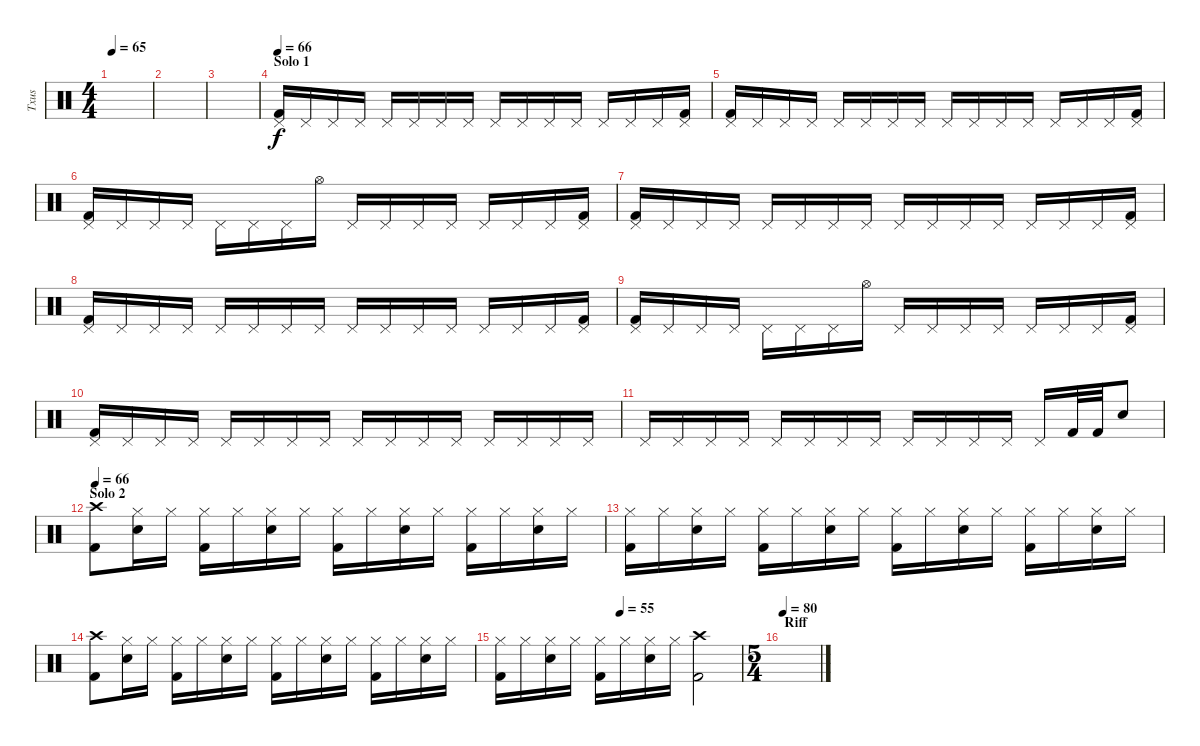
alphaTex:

\track ("Txus" "Txus") {instrument percussion}
\staff {score}
\articulation defaults
\ts (4 4)
\tempo 65
\clef neutral
\ks c
|
|
|
\section ("" "Solo 1")
\tempo 66
("Kick (hit) 2" "Pedal Hi-Hat (hit)").16{volume 11} "Pedal Hi-Hat (hit)".16 "Pedal Hi-Hat (hit)".16 "Pedal Hi-Hat (hit)".16 "Pedal Hi-Hat (hit)".16 "Pedal Hi-Hat (hit)".16 "Pedal Hi-Hat (hit)".16 "Pedal Hi-Hat (hit)".16 "Pedal Hi-Hat (hit)".16 "Pedal Hi-Hat (hit)".16 "Pedal Hi-Hat (hit)".16 "Pedal Hi-Hat (hit)".16 "Pedal Hi-Hat (hit)".16 "Pedal Hi-Hat (hit)".16 "Pedal Hi-Hat (hit)".16 ("Kick (hit) 2" "Pedal Hi-Hat (hit)").16 |
("Kick (hit) 2" "Pedal Hi-Hat (hit)").16 "Pedal Hi-Hat (hit)".16 "Pedal Hi-Hat (hit)".16 "Pedal Hi-Hat (hit)".16 "Pedal Hi-Hat (hit)".16 "Pedal Hi-Hat (hit)".16 "Pedal Hi-Hat (hit)".16 "Pedal Hi-Hat (hit)".16 "Pedal Hi-Hat (hit)".16 "Pedal Hi-Hat (hit)".16 "Pedal Hi-Hat (hit)".16 "Pedal Hi-Hat (hit)".16 "Pedal Hi-Hat (hit)".16 "Pedal Hi-Hat (hit)".16 "Pedal Hi-Hat (hit)".16 ("Kick (hit) 2" "Pedal Hi-Hat (hit)").16 |
("Kick (hit) 2" "Pedal Hi-Hat (hit)").16 "Pedal Hi-Hat (hit)".16 "Pedal Hi-Hat (hit)".16 "Pedal Hi-Hat (hit)".16 "Pedal Hi-Hat (hit)".16 "Pedal Hi-Hat (hit)".16 "Pedal Hi-Hat (hit)".16 "Hi-Hat (open)".16 "Pedal Hi-Hat (hit)".16 "Pedal Hi-Hat (hit)".16 "Pedal Hi-Hat (hit)".16 "Pedal Hi-Hat (hit)".16 "Pedal Hi-Hat (hit)".16 "Pedal Hi-Hat (hit)".16 "Pedal Hi-Hat (hit)".16 ("Kick (hit) 2" "Pedal Hi-Hat (hit)").16 |
("Kick (hit) 2" "Pedal Hi-Hat (hit)").16 "Pedal Hi-Hat (hit)".16 "Pedal Hi-Hat (hit)".16 "Pedal Hi-Hat (hit)".16 "Pedal Hi-Hat (hit)".16 "Pedal Hi-Hat (hit)".16 "Pedal Hi-Hat (hit)".16 "Pedal Hi-Hat (hit)".16 "Pedal Hi-Hat (hit)".16 "Pedal Hi-Hat (hit)".16 "Pedal Hi-Hat (hit)".16 "Pedal Hi-Hat (hit)".16 "Pedal Hi-Hat (hit)".16 "Pedal Hi-Hat (hit)".16 "Pedal Hi-Hat (hit)".16 ("Kick (hit) 2" "Pedal Hi-Hat (hit)").16 |
("Kick (hit) 2" "Pedal Hi-Hat (hit)").16 "Pedal Hi-Hat (hit)".16 "Pedal Hi-Hat (hit)".16 "Pedal Hi-Hat (hit)".16 "Pedal Hi-Hat (hit)".16 "Pedal Hi-Hat (hit)".16 "Pedal Hi-Hat (hit)".16 "Pedal Hi-Hat (hit)".16 "Pedal Hi-Hat (hit)".16 "Pedal Hi-Hat (hit)".16 "Pedal Hi-Hat (hit)".16 "Pedal Hi-Hat (hit)".16 "Pedal Hi-Hat (hit)".16 "Pedal Hi-Hat (hit)".16 "Pedal Hi-Hat (hit)".16 ("Kick (hit) 2" "Pedal Hi-Hat (hit)").16 |
("Kick (hit) 2" "Pedal Hi-Hat (hit)").16 "Pedal Hi-Hat (hit)".16 "Pedal Hi-Hat (hit)".16 "Pedal Hi-Hat (hit)".16 "Pedal Hi-Hat (hit)".16 "Pedal Hi-Hat (hit)".16 "Pedal Hi-Hat (hit)".16 "Hi-Hat (open)".16 "Pedal Hi-Hat (hit)".16 "Pedal Hi-Hat (hit)".16 "Pedal Hi-Hat (hit)".16 "Pedal Hi-Hat (hit)".16 "Pedal Hi-Hat (hit)".16 "Pedal Hi-Hat (hit)".16 "Pedal Hi-Hat (hit)".16 ("Kick (hit) 2" "Pedal Hi-Hat (hit)").16 |
("Kick (hit) 2" "Pedal Hi-Hat (hit)").16 "Pedal Hi-Hat (hit)".16 "Pedal Hi-Hat (hit)".16 "Pedal Hi-Hat (hit)".16 "Pedal Hi-Hat (hit)".16 "Pedal Hi-Hat (hit)".16 "Pedal Hi-Hat (hit)".16 "Pedal Hi-Hat (hit)".16 "Pedal Hi-Hat (hit)".16 "Pedal Hi-Hat (hit)".16 "Pedal Hi-Hat (hit)".16 "Pedal Hi-Hat (hit)".16 "Pedal Hi-Hat (hit)".16 "Pedal Hi-Hat (hit)".16 "Pedal Hi-Hat (hit)".16 "Pedal Hi-Hat (hit)".16 |
"Pedal Hi-Hat (hit)".16 "Pedal Hi-Hat (hit)".16 "Pedal Hi-Hat (hit)".16 "Pedal Hi-Hat (hit)".16 "Pedal Hi-Hat (hit)".16 "Pedal Hi-Hat (hit)".16 "Pedal Hi-Hat (hit)".16 "Pedal Hi-Hat (hit)".16 "Pedal Hi-Hat (hit)".16 "Pedal Hi-Hat (hit)".16 "Pedal Hi-Hat (hit)".16 "Pedal Hi-Hat (hit)".16 "Pedal Hi-Hat (hit)".16 "Kick (hit) 2".32{volume 14} "Kick (hit) 2".32 "Electric Snare (hit)".8 |
\section ("" "Solo 2")
\tempo 66
("Kick (hit) 2" "Crash high (hit)").8{volume 15} ("Electric Snare (hit)" "Hi-Hat (closed)").16 "Hi-Hat (closed)".16 ("Kick (hit) 2" "Hi-Hat (closed)").16 "Hi-Hat (closed)".16 ("Electric Snare (hit)" "Hi-Hat (closed)").16 "Hi-Hat (closed)".16 ("Kick (hit) 2" "Hi-Hat (closed)").16 "Hi-Hat (closed)".16 ("Electric Snare (hit)" "Hi-Hat (closed)").16 "Hi-Hat (closed)".16 ("Kick (hit) 2" "Hi-Hat (closed)").16 "Hi-Hat (closed)".16 ("Electric Snare (hit)" "Hi-Hat (closed)").16 "Hi-Hat (closed)".16 |
("Kick (hit) 2" "Hi-Hat (closed)").16 "Hi-Hat (closed)".16 ("Electric Snare (hit)" "Hi-Hat (closed)").16 "Hi-Hat (closed)".16 ("Kick (hit) 2" "Hi-Hat (closed)").16 "Hi-Hat (closed)".16 ("Electric Snare (hit)" "Hi-Hat (closed)").16 "Hi-Hat (closed)".16 ("Kick (hit) 2" "Hi-Hat (closed)").16 "Hi-Hat (closed)".16 ("Electric Snare (hit)" "Hi-Hat (closed)").16 "Hi-Hat (closed)".16 ("Kick (hit) 2" "Hi-Hat (closed)").16 "Hi-Hat (closed)".16 ("Electric Snare (hit)" "Hi-Hat (closed)").16 "Hi-Hat (closed)".16 |
("Kick (hit) 2" "Crash high (hit)").8 ("Electric Snare (hit)" "Hi-Hat (closed)").16 "Hi-Hat (closed)".16 ("Kick (hit) 2" "Hi-Hat (closed)").16 "Hi-Hat (closed)".16 ("Electric Snare (hit)" "Hi-Hat (closed)").16 "Hi-Hat (closed)".16 ("Kick (hit) 2" "Hi-Hat (closed)").16 "Hi-Hat (closed)".16 ("Electric Snare (hit)" "Hi-Hat (closed)").16 "Hi-Hat (closed)".16 ("Kick (hit) 2" "Hi-Hat (closed)").16 "Hi-Hat (closed)".16 ("Electric Snare (hit)" "Hi-Hat (closed)").16 "Hi-Hat (closed)".16 |
\tempo (55 0.5)
("Kick (hit) 2" "Hi-Hat (closed)").16 "Hi-Hat (closed)".16 ("Electric Snare (hit)" "Hi-Hat (closed)").16 "Hi-Hat (closed)".16 ("Kick (hit) 2" "Hi-Hat (closed)").16 "Hi-Hat (closed)".16 ("Electric Snare (hit)" "Hi-Hat (closed)").16 "Hi-Hat (closed)".16 ("Kick (hit) 2" "Crash high (hit)").2 |
\ts (5 4)
\section ("" "Riff ")
\tempo 80
